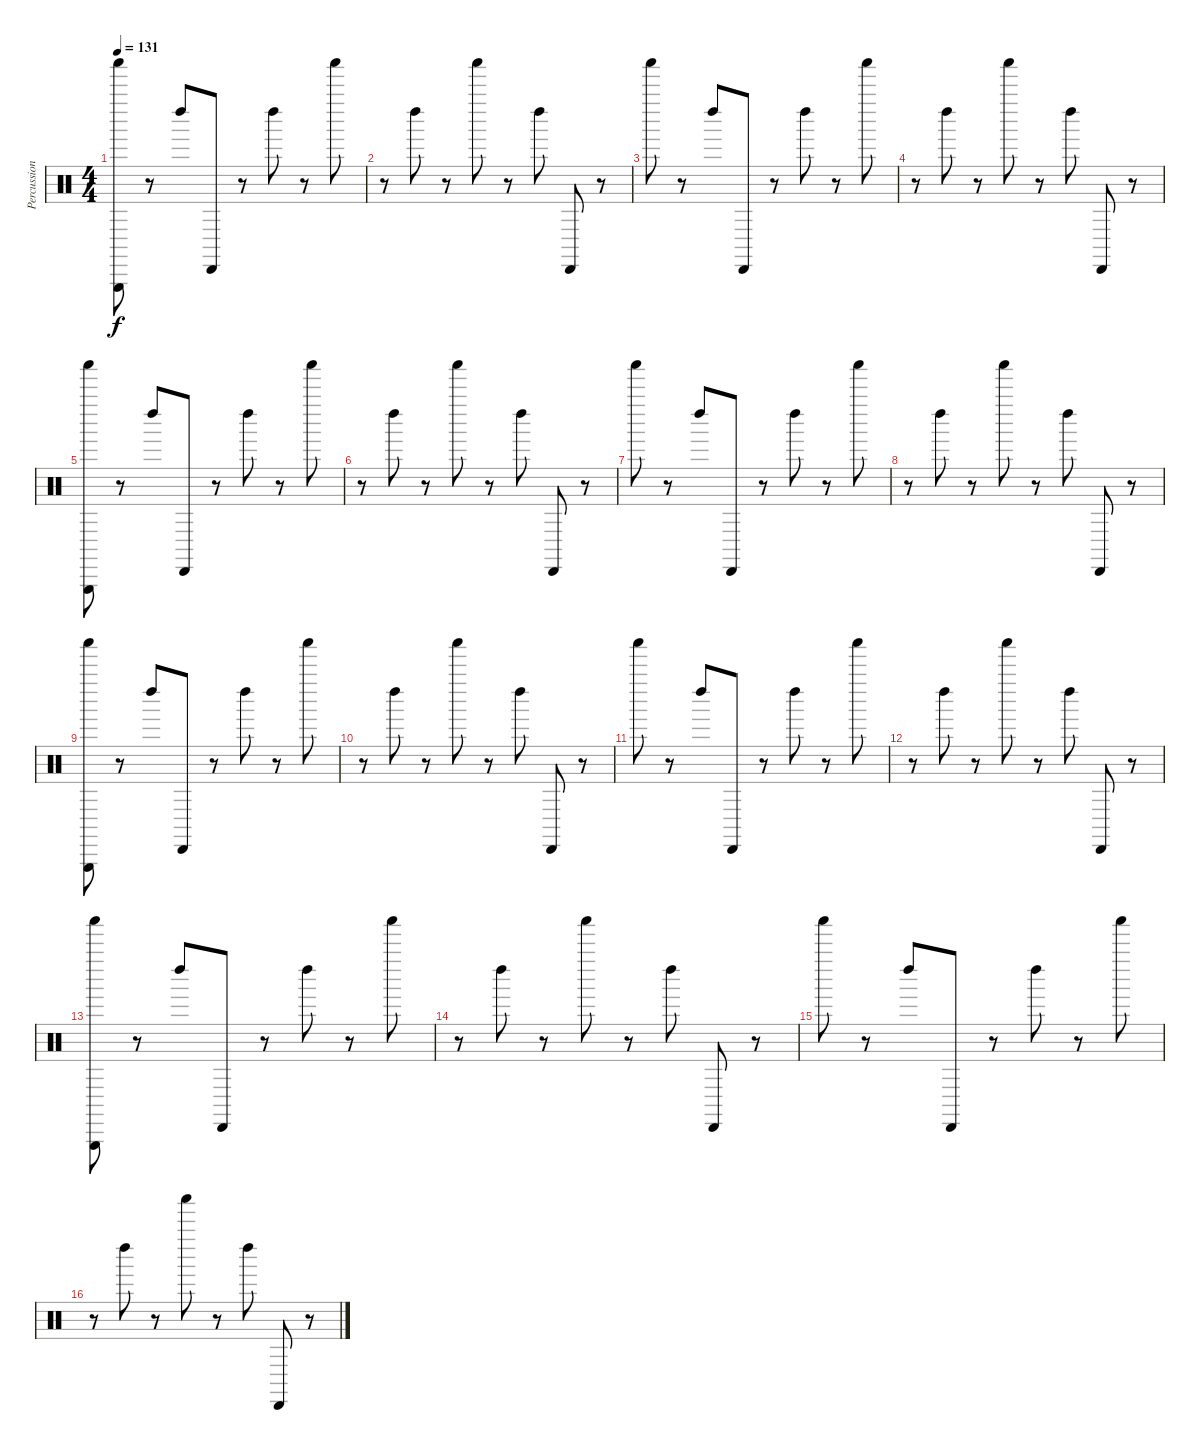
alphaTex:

\track ("Percussions" "Percussion") {instrument percussion}
\staff {score}
\articulation defaults
\ts (4 4)
\tempo 131
\clef neutral
\ks c
("Shaker (hit)" "Triangle (hit)").8{dy f} r.8 "Left Maraca (hit)".8 "Cabasa (hit)".8 r.8 "Left Maraca (hit)".8 r.8 "Shaker (hit)".8 |
r.8 "Left Maraca (hit)".8 r.8 "Shaker (hit)".8 r.8 "Left Maraca (hit)".8 "Cabasa (hit)".8 r.8 |
"Shaker (hit)".8 r.8 "Left Maraca (hit)".8 "Cabasa (hit)".8 r.8 "Left Maraca (hit)".8 r.8 "Shaker (hit)".8 |
r.8 "Left Maraca (hit)".8 r.8 "Shaker (hit)".8 r.8 "Left Maraca (hit)".8 "Cabasa (hit)".8 r.8 |
("Shaker (hit)" "Triangle (hit)").8 r.8 "Left Maraca (hit)".8 "Cabasa (hit)".8 r.8 "Left Maraca (hit)".8 r.8 "Shaker (hit)".8 |
r.8 "Left Maraca (hit)".8 r.8 "Shaker (hit)".8 r.8 "Left Maraca (hit)".8 "Cabasa (hit)".8 r.8 |
"Shaker (hit)".8 r.8 "Left Maraca (hit)".8 "Cabasa (hit)".8 r.8 "Left Maraca (hit)".8 r.8 "Shaker (hit)".8 |
r.8 "Left Maraca (hit)".8 r.8 "Shaker (hit)".8 r.8 "Left Maraca (hit)".8 "Cabasa (hit)".8 r.8 |
("Shaker (hit)" "Triangle (hit)").8 r.8 "Left Maraca (hit)".8 "Cabasa (hit)".8 r.8 "Left Maraca (hit)".8 r.8 "Shaker (hit)".8 |
r.8 "Left Maraca (hit)".8 r.8 "Shaker (hit)".8 r.8 "Left Maraca (hit)".8 "Cabasa (hit)".8 r.8 |
"Shaker (hit)".8 r.8 "Left Maraca (hit)".8 "Cabasa (hit)".8 r.8 "Left Maraca (hit)".8 r.8 "Shaker (hit)".8 |
r.8 "Left Maraca (hit)".8 r.8 "Shaker (hit)".8 r.8 "Left Maraca (hit)".8 "Cabasa (hit)".8 r.8 |
("Shaker (hit)" "Triangle (hit)").8 r.8 "Left Maraca (hit)".8 "Cabasa (hit)".8 r.8 "Left Maraca (hit)".8 r.8 "Shaker (hit)".8 |
r.8 "Left Maraca (hit)".8 r.8 "Shaker (hit)".8 r.8 "Left Maraca (hit)".8 "Cabasa (hit)".8 r.8 |
"Shaker (hit)".8 r.8 "Left Maraca (hit)".8 "Cabasa (hit)".8 r.8 "Left Maraca (hit)".8 r.8 "Shaker (hit)".8 |
r.8 "Left Maraca (hit)".8 r.8 "Shaker (hit)".8 r.8 "Left Maraca (hit)".8 "Cabasa (hit)".8 r.8
